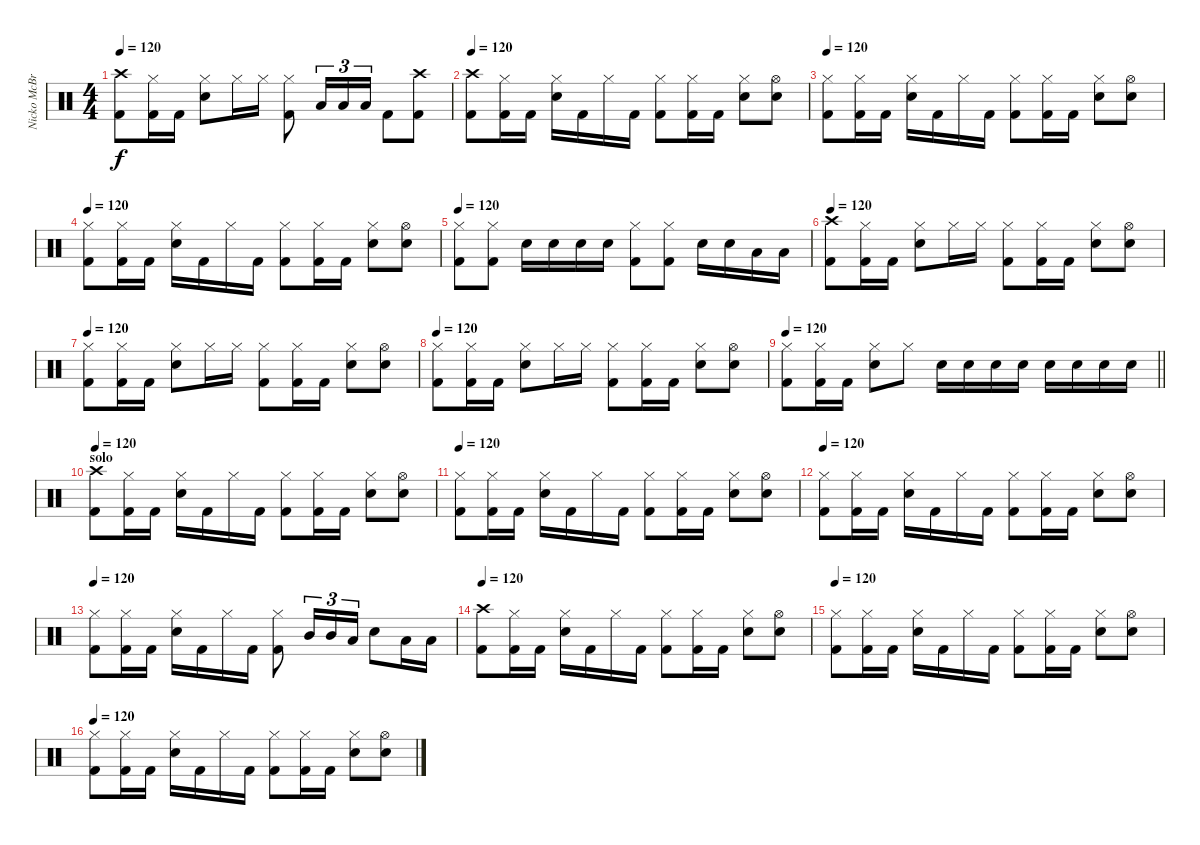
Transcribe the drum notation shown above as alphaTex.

\track ("Nicko McBrain" "Nicko McBr") {instrument percussion}
\staff {score}
\articulation defaults
\ts (4 4)
\tempo 120
\clef neutral
\ks c
("Crash high (hit)" "Kick (hit) 2").8{dy f} ("Hi-Hat (closed)" "Kick (hit) 2").16 "Kick (hit) 2".16 ("Hi-Hat (closed)" "Snare (hit) 2").8 "Hi-Hat (closed)".16 "Hi-Hat (closed)".16 ("Hi-Hat (closed)" "Kick (hit) 2").8 "Low Tom (hit)".16{tu (3 2)} "Low Tom (hit)".16{tu (3 2)} "Low Floor Tom (hit)".16{tu (3 2)} "Kick (hit) 2".8 ("Crash high (hit)" "Kick (hit) 2").8 |
\tempo 120
("Crash high (hit)" "Kick (hit) 2").8 ("Hi-Hat (closed)" "Kick (hit) 2").16 "Kick (hit) 2".16 ("Hi-Hat (closed)" "Snare (hit) 2").16 "Kick (hit) 2".16 "Hi-Hat (closed)".16 "Kick (hit) 2".16 ("Hi-Hat (closed)" "Kick (hit) 2").8 ("Hi-Hat (closed)" "Kick (hit) 2").16 "Kick (hit) 2".16 ("Hi-Hat (closed)" "Snare (hit) 2").8 ("Hi-Hat (open)" "Snare (hit) 2").8 |
\tempo 120
("Hi-Hat (closed)" "Kick (hit) 2").8 ("Hi-Hat (closed)" "Kick (hit) 2").16 "Kick (hit) 2".16 ("Hi-Hat (closed)" "Snare (hit) 2").16 "Kick (hit) 2".16 "Hi-Hat (closed)".16 "Kick (hit) 2".16 ("Hi-Hat (closed)" "Kick (hit) 2").8 ("Hi-Hat (closed)" "Kick (hit) 2").16 "Kick (hit) 2".16 ("Hi-Hat (closed)" "Snare (hit) 2").8 ("Hi-Hat (open)" "Snare (hit) 2").8 |
\tempo 120
("Hi-Hat (closed)" "Kick (hit) 2").8 ("Hi-Hat (closed)" "Kick (hit) 2").16 "Kick (hit) 2".16 ("Hi-Hat (closed)" "Snare (hit) 2").16 "Kick (hit) 2".16 "Hi-Hat (closed)".16 "Kick (hit) 2".16 ("Hi-Hat (closed)" "Kick (hit) 2").8 ("Hi-Hat (closed)" "Kick (hit) 2").16 "Kick (hit) 2".16 ("Hi-Hat (closed)" "Snare (hit) 2").8 ("Hi-Hat (open)" "Snare (hit) 2").8 |
\tempo 120
("Hi-Hat (closed)" "Kick (hit) 2").8 ("Hi-Hat (closed)" "Kick (hit) 2").8 "Snare (hit) 2".16 "Snare (hit) 2".16 "Snare (hit) 2".16 "Snare (hit) 2".16 ("Hi-Hat (closed)" "Kick (hit) 2").8 ("Hi-Hat (closed)" "Kick (hit) 2").8 "Snare (hit) 2".16 "Snare (hit) 2".16 "Low Floor Tom (hit)".16 "Low Floor Tom (hit)".16 |
\tempo 120
("Crash high (hit)" "Kick (hit) 2").8 ("Hi-Hat (closed)" "Kick (hit) 2").16 "Kick (hit) 2".16 ("Hi-Hat (closed)" "Snare (hit) 2").8 "Hi-Hat (closed)".16 "Hi-Hat (closed)".16 ("Hi-Hat (closed)" "Kick (hit) 2").8 ("Hi-Hat (closed)" "Kick (hit) 2").16 "Kick (hit) 2".16 ("Hi-Hat (closed)" "Snare (hit) 2").8 ("Hi-Hat (open)" "Snare (hit) 2").8 |
\tempo 120
("Hi-Hat (closed)" "Kick (hit) 2").8 ("Hi-Hat (closed)" "Kick (hit) 2").16 "Kick (hit) 2".16 ("Hi-Hat (closed)" "Snare (hit) 2").8 "Hi-Hat (closed)".16 "Hi-Hat (closed)".16 ("Hi-Hat (closed)" "Kick (hit) 2").8 ("Hi-Hat (closed)" "Kick (hit) 2").16 "Kick (hit) 2".16 ("Hi-Hat (closed)" "Snare (hit) 2").8 ("Hi-Hat (open)" "Snare (hit) 2").8 |
\tempo 120
("Hi-Hat (closed)" "Kick (hit) 2").8 ("Hi-Hat (closed)" "Kick (hit) 2").16 "Kick (hit) 2".16 ("Hi-Hat (closed)" "Snare (hit) 2").8 "Hi-Hat (closed)".16 "Hi-Hat (closed)".16 ("Hi-Hat (closed)" "Kick (hit) 2").8 ("Hi-Hat (closed)" "Kick (hit) 2").16 "Kick (hit) 2".16 ("Hi-Hat (closed)" "Snare (hit) 2").8 ("Hi-Hat (open)" "Snare (hit) 2").8 |
\tempo 120
\barLineRight lightlight
("Hi-Hat (closed)" "Kick (hit) 2").8 ("Hi-Hat (closed)" "Kick (hit) 2").16 "Kick (hit) 2".16 ("Hi-Hat (closed)" "Snare (hit) 2").8 "Hi-Hat (closed)".8 "Snare (hit) 2".16 "Snare (hit) 2".16 "Snare (hit) 2".16 "Snare (hit) 2".16 "Snare (hit) 2".16 "Snare (hit) 2".16 "Snare (hit) 2".16 "Snare (hit) 2".16 |
\section ("" "solo")
\tempo 120
("Crash high (hit)" "Kick (hit) 2").8 ("Hi-Hat (closed)" "Kick (hit) 2").16 "Kick (hit) 2".16 ("Hi-Hat (closed)" "Snare (hit) 2").16 "Kick (hit) 2".16 "Hi-Hat (closed)".16 "Kick (hit) 2".16 ("Hi-Hat (closed)" "Kick (hit) 2").8 ("Hi-Hat (closed)" "Kick (hit) 2").16 "Kick (hit) 2".16 ("Hi-Hat (closed)" "Snare (hit) 2").8 ("Hi-Hat (open)" "Snare (hit) 2").8 |
\tempo 120
("Hi-Hat (closed)" "Kick (hit) 2").8 ("Hi-Hat (closed)" "Kick (hit) 2").16 "Kick (hit) 2".16 ("Hi-Hat (closed)" "Snare (hit) 2").16 "Kick (hit) 2".16 "Hi-Hat (closed)".16 "Kick (hit) 2".16 ("Hi-Hat (closed)" "Kick (hit) 2").8 ("Hi-Hat (closed)" "Kick (hit) 2").16 "Kick (hit) 2".16 ("Hi-Hat (closed)" "Snare (hit) 2").8 ("Hi-Hat (open)" "Snare (hit) 2").8 |
\tempo 120
("Hi-Hat (closed)" "Kick (hit) 2").8 ("Hi-Hat (closed)" "Kick (hit) 2").16 "Kick (hit) 2".16 ("Hi-Hat (closed)" "Snare (hit) 2").16 "Kick (hit) 2".16 "Hi-Hat (closed)".16 "Kick (hit) 2".16 ("Hi-Hat (closed)" "Kick (hit) 2").8 ("Hi-Hat (closed)" "Kick (hit) 2").16 "Kick (hit) 2".16 ("Hi-Hat (closed)" "Snare (hit) 2").8 ("Hi-Hat (open)" "Snare (hit) 2").8 |
\tempo 120
("Hi-Hat (closed)" "Kick (hit) 2").8 ("Hi-Hat (closed)" "Kick (hit) 2").16 "Kick (hit) 2".16 ("Hi-Hat (closed)" "Snare (hit) 2").16 "Kick (hit) 2".16 "Hi-Hat (closed)".16 "Kick (hit) 2".16 ("Hi-Hat (closed)" "Kick (hit) 2").8 "Mid Tom (hit)".16{tu (3 2)} "Mid Tom (hit)".16{tu (3 2)} "Low Tom (hit)".16{tu (3 2)} "Snare (hit) 2".8 "Low Floor Tom (hit)".16 "Low Floor Tom (hit)".16 |
\tempo 120
("Crash high (hit)" "Kick (hit) 2").8 ("Hi-Hat (closed)" "Kick (hit) 2").16 "Kick (hit) 2".16 ("Hi-Hat (closed)" "Snare (hit) 2").16 "Kick (hit) 2".16 "Hi-Hat (closed)".16 "Kick (hit) 2".16 ("Hi-Hat (closed)" "Kick (hit) 2").8 ("Hi-Hat (closed)" "Kick (hit) 2").16 "Kick (hit) 2".16 ("Hi-Hat (closed)" "Snare (hit) 2").8 ("Hi-Hat (open)" "Snare (hit) 2").8 |
\tempo 120
("Hi-Hat (closed)" "Kick (hit) 2").8 ("Hi-Hat (closed)" "Kick (hit) 2").16 "Kick (hit) 2".16 ("Hi-Hat (closed)" "Snare (hit) 2").16 "Kick (hit) 2".16 "Hi-Hat (closed)".16 "Kick (hit) 2".16 ("Hi-Hat (closed)" "Kick (hit) 2").8 ("Hi-Hat (closed)" "Kick (hit) 2").16 "Kick (hit) 2".16 ("Hi-Hat (closed)" "Snare (hit) 2").8 ("Hi-Hat (open)" "Snare (hit) 2").8 |
\tempo 120
("Hi-Hat (closed)" "Kick (hit) 2").8 ("Hi-Hat (closed)" "Kick (hit) 2").16 "Kick (hit) 2".16 ("Hi-Hat (closed)" "Snare (hit) 2").16 "Kick (hit) 2".16 "Hi-Hat (closed)".16 "Kick (hit) 2".16 ("Hi-Hat (closed)" "Kick (hit) 2").8 ("Hi-Hat (closed)" "Kick (hit) 2").16 "Kick (hit) 2".16 ("Hi-Hat (closed)" "Snare (hit) 2").8 ("Hi-Hat (open)" "Snare (hit) 2").8
